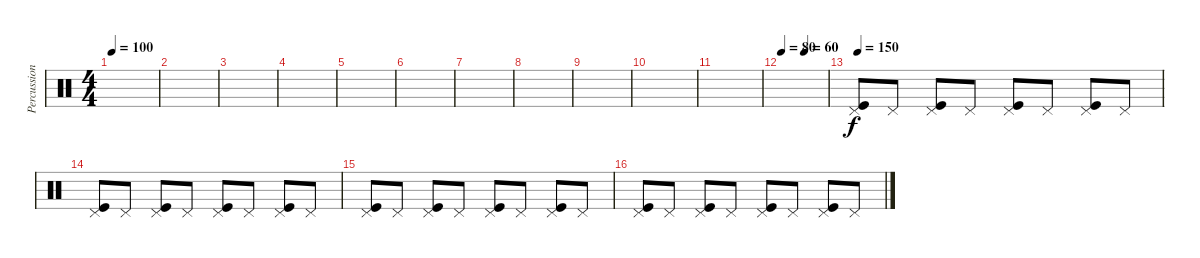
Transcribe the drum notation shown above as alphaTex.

\track ("Percussion" "Percussion") {instrument percussion}
\staff {score}
\articulation defaults
\ts (4 4)
\tempo 100
\clef neutral
\ks c
|
|
|
|
|
|
|
|
|
|
|
\tempo 80
\tempo (60 0.5)
|
\tempo 150
("Pedal Hi-Hat (hit)" "Kick (hit)").8 "Pedal Hi-Hat (hit)".8 ("Pedal Hi-Hat (hit)" "Kick (hit)").8 "Pedal Hi-Hat (hit)".8 ("Pedal Hi-Hat (hit)" "Kick (hit)").8 "Pedal Hi-Hat (hit)".8 ("Pedal Hi-Hat (hit)" "Kick (hit)").8 "Pedal Hi-Hat (hit)".8 |
("Pedal Hi-Hat (hit)" "Kick (hit)").8 "Pedal Hi-Hat (hit)".8 ("Pedal Hi-Hat (hit)" "Kick (hit)").8 "Pedal Hi-Hat (hit)".8 ("Pedal Hi-Hat (hit)" "Kick (hit)").8 "Pedal Hi-Hat (hit)".8 ("Pedal Hi-Hat (hit)" "Kick (hit)").8 "Pedal Hi-Hat (hit)".8 |
("Pedal Hi-Hat (hit)" "Kick (hit)").8 "Pedal Hi-Hat (hit)".8 ("Pedal Hi-Hat (hit)" "Kick (hit)").8 "Pedal Hi-Hat (hit)".8 ("Pedal Hi-Hat (hit)" "Kick (hit)").8 "Pedal Hi-Hat (hit)".8 ("Pedal Hi-Hat (hit)" "Kick (hit)").8 "Pedal Hi-Hat (hit)".8 |
("Pedal Hi-Hat (hit)" "Kick (hit)").8 "Pedal Hi-Hat (hit)".8 ("Pedal Hi-Hat (hit)" "Kick (hit)").8 "Pedal Hi-Hat (hit)".8 ("Pedal Hi-Hat (hit)" "Kick (hit)").8 "Pedal Hi-Hat (hit)".8 ("Pedal Hi-Hat (hit)" "Kick (hit)").8 "Pedal Hi-Hat (hit)".8
